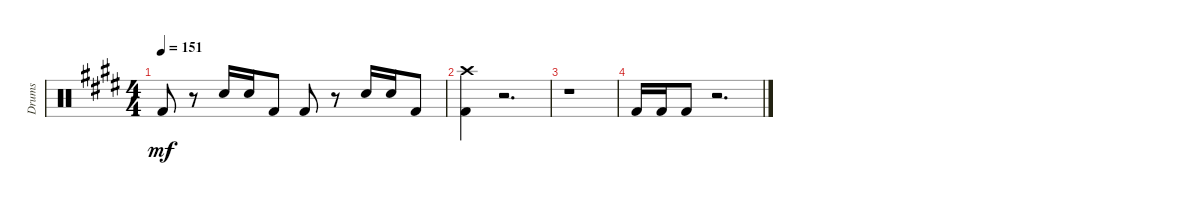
\track ("Drums" "Drums") {instrument percussion}
\staff {score}
\articulation defaults
\ts (4 4)
\tempo 151
\clef neutral
\ks e "Kick (hit) 2".8{dy mf}
r.8 "Electric Snare (hit)".16 "Electric Snare (hit)".16 "Kick (hit) 2".8 "Kick (hit) 2".8 r.8 "Electric Snare (hit)".16 "Electric Snare (hit)".16 "Kick (hit) 2".8 |
("Crash high (hit)" "Kick (hit) 2").4 r.2{d} |
r.1 |
"Kick (hit) 2".16 "Kick (hit) 2".16 "Kick (hit) 2".8 r.2{d}
